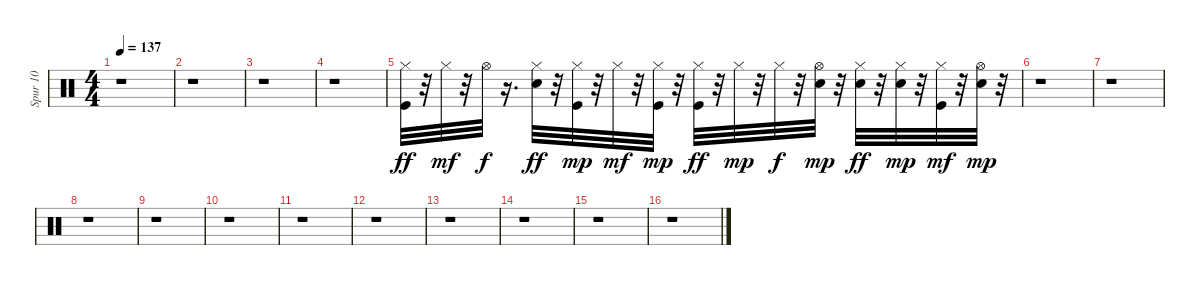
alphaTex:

\track ("Spur 10" "Spur 10") {instrument percussion}
\staff {score}
\articulation defaults
\ts (4 4)
\tempo 137
\clef neutral
\ks c
r.1{dy ff} |
r.1 |
r.1 |
r.1 |
("Kick (hit)" "Hi-Hat (closed)").32 r.32 "Hi-Hat (closed)".32{dy mf} r.32 "Hi-Hat (open)".32{dy f} r.16{d} ("Electric Snare (hit)" "Hi-Hat (closed)").32{dy ff} r.32 ("Kick (hit)" "Hi-Hat (closed)").32{dy mp} r.32 "Hi-Hat (closed)".32{dy mf} r.32 ("Kick (hit)" "Hi-Hat (closed)").32{dy mp} r.32 ("Kick (hit)" "Hi-Hat (closed)").32{dy ff} r.32 "Hi-Hat (closed)".32{dy mp} r.32 "Hi-Hat (closed)".32{dy f} r.32 ("Electric Snare (hit)" "Hi-Hat (open)").32{dy mp} r.32 ("Electric Snare (hit)" "Hi-Hat (closed)").32{dy ff} r.32 ("Electric Snare (hit)" "Hi-Hat (closed)").32{dy mp} r.32 ("Kick (hit)" "Hi-Hat (closed)").32{dy mf} r.32 ("Electric Snare (hit)" "Hi-Hat (open)").32{dy mp} r.32 |
r.1 |
r.1 |
r.1 |
r.1 |
r.1 |
r.1 |
r.1 |
r.1 |
r.1 |
r.1 |
r.1
